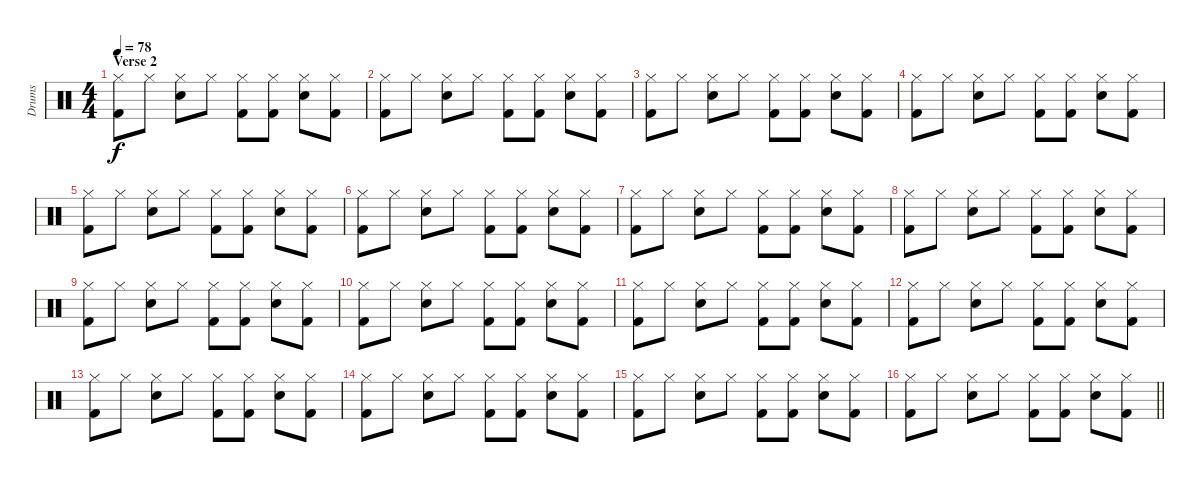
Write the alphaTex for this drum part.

\track ("Drums" "Drums") {instrument percussion}
\staff {score}
\articulation defaults
\ts (4 4)
\section ("" "Verse 2")
\tempo 78
\clef neutral
\ks c
("Hi-Hat (closed)" "Kick (hit) 2").8{dy f} "Hi-Hat (closed)".8 ("Hi-Hat (closed)" "Snare (hit) 2").8 "Hi-Hat (closed)".8 ("Hi-Hat (closed)" "Kick (hit) 2").8 ("Hi-Hat (closed)" "Kick (hit) 2").8 ("Hi-Hat (closed)" "Snare (hit) 2").8 ("Hi-Hat (closed)" "Kick (hit) 2").8 |
("Hi-Hat (closed)" "Kick (hit) 2").8 "Hi-Hat (closed)".8 ("Hi-Hat (closed)" "Snare (hit) 2").8 "Hi-Hat (closed)".8 ("Hi-Hat (closed)" "Kick (hit) 2").8 ("Hi-Hat (closed)" "Kick (hit) 2").8 ("Hi-Hat (closed)" "Snare (hit) 2").8 ("Hi-Hat (closed)" "Kick (hit) 2").8 |
("Hi-Hat (closed)" "Kick (hit) 2").8 "Hi-Hat (closed)".8 ("Hi-Hat (closed)" "Snare (hit) 2").8 "Hi-Hat (closed)".8 ("Hi-Hat (closed)" "Kick (hit) 2").8 ("Hi-Hat (closed)" "Kick (hit) 2").8 ("Hi-Hat (closed)" "Snare (hit) 2").8 ("Hi-Hat (closed)" "Kick (hit) 2").8 |
("Hi-Hat (closed)" "Kick (hit) 2").8 "Hi-Hat (closed)".8 ("Hi-Hat (closed)" "Snare (hit) 2").8 "Hi-Hat (closed)".8 ("Hi-Hat (closed)" "Kick (hit) 2").8 ("Hi-Hat (closed)" "Kick (hit) 2").8 ("Hi-Hat (closed)" "Snare (hit) 2").8 ("Hi-Hat (closed)" "Kick (hit) 2").8 |
("Hi-Hat (closed)" "Kick (hit) 2").8 "Hi-Hat (closed)".8 ("Hi-Hat (closed)" "Snare (hit) 2").8 "Hi-Hat (closed)".8 ("Hi-Hat (closed)" "Kick (hit) 2").8 ("Hi-Hat (closed)" "Kick (hit) 2").8 ("Hi-Hat (closed)" "Snare (hit) 2").8 ("Hi-Hat (closed)" "Kick (hit) 2").8 |
("Hi-Hat (closed)" "Kick (hit) 2").8 "Hi-Hat (closed)".8 ("Hi-Hat (closed)" "Snare (hit) 2").8 "Hi-Hat (closed)".8 ("Hi-Hat (closed)" "Kick (hit) 2").8 ("Hi-Hat (closed)" "Kick (hit) 2").8 ("Hi-Hat (closed)" "Snare (hit) 2").8 ("Hi-Hat (closed)" "Kick (hit) 2").8 |
("Hi-Hat (closed)" "Kick (hit) 2").8 "Hi-Hat (closed)".8 ("Hi-Hat (closed)" "Snare (hit) 2").8 "Hi-Hat (closed)".8 ("Hi-Hat (closed)" "Kick (hit) 2").8 ("Hi-Hat (closed)" "Kick (hit) 2").8 ("Hi-Hat (closed)" "Snare (hit) 2").8 ("Hi-Hat (closed)" "Kick (hit) 2").8 |
("Hi-Hat (closed)" "Kick (hit) 2").8 "Hi-Hat (closed)".8 ("Hi-Hat (closed)" "Snare (hit) 2").8 "Hi-Hat (closed)".8 ("Hi-Hat (closed)" "Kick (hit) 2").8 ("Hi-Hat (closed)" "Kick (hit) 2").8 ("Hi-Hat (closed)" "Snare (hit) 2").8 ("Hi-Hat (closed)" "Kick (hit) 2").8 |
("Hi-Hat (closed)" "Kick (hit) 2").8 "Hi-Hat (closed)".8 ("Hi-Hat (closed)" "Snare (hit) 2").8 "Hi-Hat (closed)".8 ("Hi-Hat (closed)" "Kick (hit) 2").8 ("Hi-Hat (closed)" "Kick (hit) 2").8 ("Hi-Hat (closed)" "Snare (hit) 2").8 ("Hi-Hat (closed)" "Kick (hit) 2").8 |
("Hi-Hat (closed)" "Kick (hit) 2").8 "Hi-Hat (closed)".8 ("Hi-Hat (closed)" "Snare (hit) 2").8 "Hi-Hat (closed)".8 ("Hi-Hat (closed)" "Kick (hit) 2").8 ("Hi-Hat (closed)" "Kick (hit) 2").8 ("Hi-Hat (closed)" "Snare (hit) 2").8 ("Hi-Hat (closed)" "Kick (hit) 2").8 |
("Hi-Hat (closed)" "Kick (hit) 2").8 "Hi-Hat (closed)".8 ("Hi-Hat (closed)" "Snare (hit) 2").8 "Hi-Hat (closed)".8 ("Hi-Hat (closed)" "Kick (hit) 2").8 ("Hi-Hat (closed)" "Kick (hit) 2").8 ("Hi-Hat (closed)" "Snare (hit) 2").8 ("Hi-Hat (closed)" "Kick (hit) 2").8 |
("Hi-Hat (closed)" "Kick (hit) 2").8 "Hi-Hat (closed)".8 ("Hi-Hat (closed)" "Snare (hit) 2").8 "Hi-Hat (closed)".8 ("Hi-Hat (closed)" "Kick (hit) 2").8 ("Hi-Hat (closed)" "Kick (hit) 2").8 ("Hi-Hat (closed)" "Snare (hit) 2").8 ("Hi-Hat (closed)" "Kick (hit) 2").8 |
("Hi-Hat (closed)" "Kick (hit) 2").8 "Hi-Hat (closed)".8 ("Hi-Hat (closed)" "Snare (hit) 2").8 "Hi-Hat (closed)".8 ("Hi-Hat (closed)" "Kick (hit) 2").8 ("Hi-Hat (closed)" "Kick (hit) 2").8 ("Hi-Hat (closed)" "Snare (hit) 2").8 ("Hi-Hat (closed)" "Kick (hit) 2").8 |
("Hi-Hat (closed)" "Kick (hit) 2").8 "Hi-Hat (closed)".8 ("Hi-Hat (closed)" "Snare (hit) 2").8 "Hi-Hat (closed)".8 ("Hi-Hat (closed)" "Kick (hit) 2").8 ("Hi-Hat (closed)" "Kick (hit) 2").8 ("Hi-Hat (closed)" "Snare (hit) 2").8 ("Hi-Hat (closed)" "Kick (hit) 2").8 |
("Hi-Hat (closed)" "Kick (hit) 2").8 "Hi-Hat (closed)".8 ("Hi-Hat (closed)" "Snare (hit) 2").8 "Hi-Hat (closed)".8 ("Hi-Hat (closed)" "Kick (hit) 2").8 ("Hi-Hat (closed)" "Kick (hit) 2").8 ("Hi-Hat (closed)" "Snare (hit) 2").8 ("Hi-Hat (closed)" "Kick (hit) 2").8 |
\barLineRight lightlight
("Hi-Hat (closed)" "Kick (hit) 2").8 "Hi-Hat (closed)".8 ("Hi-Hat (closed)" "Snare (hit) 2").8 "Hi-Hat (closed)".8 ("Hi-Hat (closed)" "Kick (hit) 2").8 ("Hi-Hat (closed)" "Kick (hit) 2").8 ("Hi-Hat (closed)" "Snare (hit) 2").8 ("Hi-Hat (closed)" "Kick (hit) 2").8
